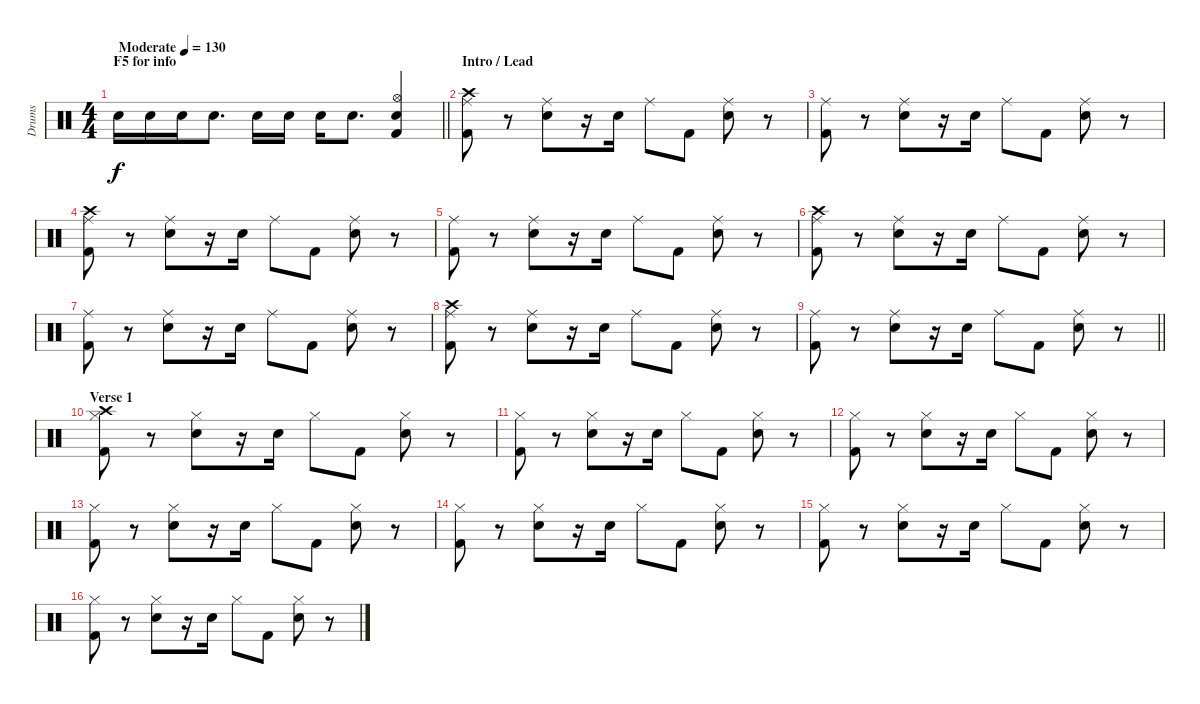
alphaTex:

\track ("Drums" "Drums") {instrument percussion}
\staff {score}
\articulation defaults
\ts (4 4)
\section ("" "F5 for info")
\tempo (130 "Moderate")
\clef neutral
\barLineRight lightlight
\ks c "Snare (hit) 2".16{dy f} "Snare (hit) 2".16 "Snare (hit) 2".16 "Snare (hit) 2".8{d} "Snare (hit) 2".16 "Snare (hit) 2".16 "Snare (hit) 2".16 "Snare (hit) 2".8{d}
("Hi-Hat (open)" "Snare (hit) 2" "Kick (hit) 2").4 |
\section ("" "Intro / Lead")
("Crash high (hit)" "Ride (middle)" "Kick (hit) 2").8 r.8 ("Ride (middle)" "Snare (hit) 2").8 r.16 "Snare (hit) 2".16 "Ride (middle)".8 "Kick (hit) 2".8 ("Ride (middle)" "Snare (hit) 2").8 r.8 |
("Ride (middle)" "Kick (hit) 2").8 r.8 ("Ride (middle)" "Snare (hit) 2").8 r.16 "Snare (hit) 2".16 "Ride (middle)".8 "Kick (hit) 2".8 ("Ride (middle)" "Snare (hit) 2").8 r.8 |
("Crash high (hit)" "Ride (middle)" "Kick (hit) 2").8 r.8 ("Ride (middle)" "Snare (hit) 2").8 r.16 "Snare (hit) 2".16 "Ride (middle)".8 "Kick (hit) 2".8 ("Ride (middle)" "Snare (hit) 2").8 r.8 |
("Ride (middle)" "Kick (hit) 2").8 r.8 ("Ride (middle)" "Snare (hit) 2").8 r.16 "Snare (hit) 2".16 "Ride (middle)".8 "Kick (hit) 2".8 ("Ride (middle)" "Snare (hit) 2").8 r.8 |
("Crash high (hit)" "Ride (middle)" "Kick (hit) 2").8 r.8 ("Ride (middle)" "Snare (hit) 2").8 r.16 "Snare (hit) 2".16 "Ride (middle)".8 "Kick (hit) 2".8 ("Ride (middle)" "Snare (hit) 2").8 r.8 |
("Ride (middle)" "Kick (hit) 2").8 r.8 ("Ride (middle)" "Snare (hit) 2").8 r.16 "Snare (hit) 2".16 "Ride (middle)".8 "Kick (hit) 2".8 ("Ride (middle)" "Snare (hit) 2").8 r.8 |
("Crash high (hit)" "Ride (middle)" "Kick (hit) 2").8 r.8 ("Ride (middle)" "Snare (hit) 2").8 r.16 "Snare (hit) 2".16 "Ride (middle)".8 "Kick (hit) 2".8 ("Ride (middle)" "Snare (hit) 2").8 r.8 |
\barLineRight lightlight
("Ride (middle)" "Kick (hit) 2").8 r.8 ("Ride (middle)" "Snare (hit) 2").8 r.16 "Snare (hit) 2".16 "Ride (middle)".8 "Kick (hit) 2".8 ("Ride (middle)" "Snare (hit) 2").8 r.8 |
\section ("" "Verse 1")
("Crash high (hit)" "Hi-Hat (closed)" "Kick (hit) 2").8 r.8 ("Hi-Hat (closed)" "Snare (hit) 2").8 r.16 "Snare (hit) 2".16 "Hi-Hat (closed)".8 "Kick (hit) 2".8 ("Hi-Hat (closed)" "Snare (hit) 2").8 r.8 |
("Hi-Hat (closed)" "Kick (hit) 2").8 r.8 ("Hi-Hat (closed)" "Snare (hit) 2").8 r.16 "Snare (hit) 2".16 "Hi-Hat (closed)".8 "Kick (hit) 2".8 ("Hi-Hat (closed)" "Snare (hit) 2").8 r.8 |
("Hi-Hat (closed)" "Kick (hit) 2").8 r.8 ("Hi-Hat (closed)" "Snare (hit) 2").8 r.16 "Snare (hit) 2".16 "Hi-Hat (closed)".8 "Kick (hit) 2".8 ("Hi-Hat (closed)" "Snare (hit) 2").8 r.8 |
("Hi-Hat (closed)" "Kick (hit) 2").8 r.8 ("Hi-Hat (closed)" "Snare (hit) 2").8 r.16 "Snare (hit) 2".16 "Hi-Hat (closed)".8 "Kick (hit) 2".8 ("Hi-Hat (closed)" "Snare (hit) 2").8 r.8 |
("Hi-Hat (closed)" "Kick (hit) 2").8 r.8 ("Hi-Hat (closed)" "Snare (hit) 2").8 r.16 "Snare (hit) 2".16 "Hi-Hat (closed)".8 "Kick (hit) 2".8 ("Hi-Hat (closed)" "Snare (hit) 2").8 r.8 |
("Hi-Hat (closed)" "Kick (hit) 2").8 r.8 ("Hi-Hat (closed)" "Snare (hit) 2").8 r.16 "Snare (hit) 2".16 "Hi-Hat (closed)".8 "Kick (hit) 2".8 ("Hi-Hat (closed)" "Snare (hit) 2").8 r.8 |
("Hi-Hat (closed)" "Kick (hit) 2").8 r.8 ("Hi-Hat (closed)" "Snare (hit) 2").8 r.16 "Snare (hit) 2".16 "Hi-Hat (closed)".8 "Kick (hit) 2".8 ("Hi-Hat (closed)" "Snare (hit) 2").8 r.8
